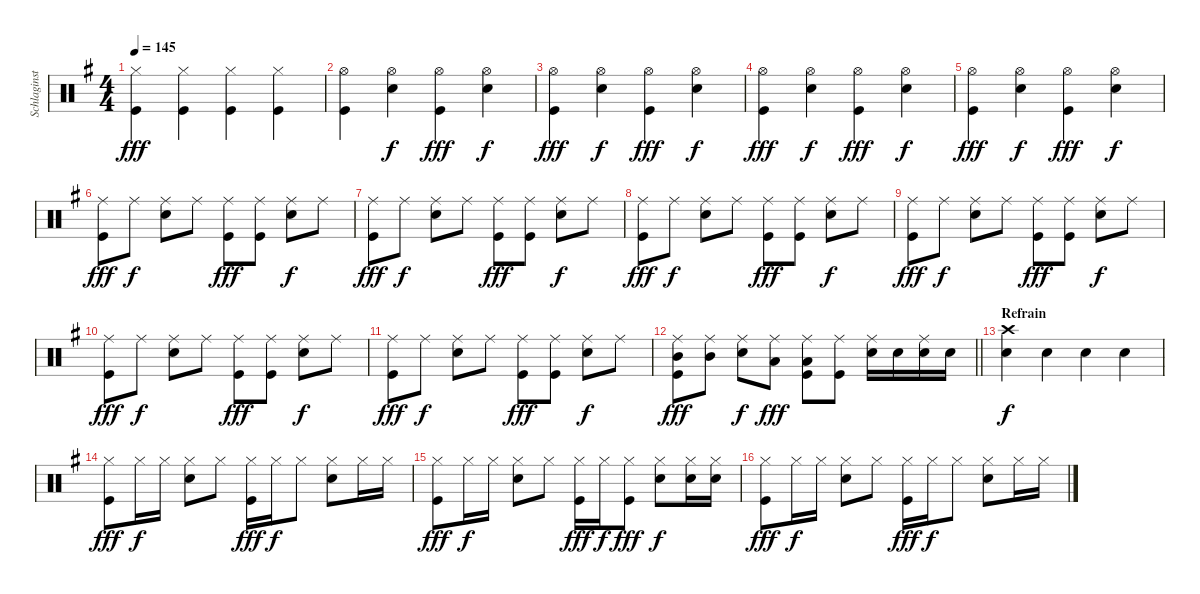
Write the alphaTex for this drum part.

\track ("Schlaginstrumente - Auswahl" "Schlaginst") {instrument percussion}
\staff {score}
\articulation defaults
\ts (4 4)
\tempo 145
\clef neutral
\ks eminor
("Hi-Hat (closed)" "Kick (hit)").4{dy fff} ("Hi-Hat (closed)" "Kick (hit)").4 ("Hi-Hat (closed)" "Kick (hit)").4 ("Hi-Hat (closed)" "Kick (hit)").4 |
("Hi-Hat (open)" "Kick (hit)").4 ("Hi-Hat (open)" "Snare (hit) 2").4{dy f} ("Hi-Hat (open)" "Kick (hit)").4{dy fff} ("Hi-Hat (open)" "Snare (hit) 2").4{dy f} |
("Hi-Hat (open)" "Kick (hit)").4{dy fff} ("Hi-Hat (open)" "Snare (hit) 2").4{dy f} ("Hi-Hat (open)" "Kick (hit)").4{dy fff} ("Hi-Hat (open)" "Snare (hit) 2").4{dy f} |
("Hi-Hat (open)" "Kick (hit)").4{dy fff} ("Hi-Hat (open)" "Snare (hit) 2").4{dy f} ("Hi-Hat (open)" "Kick (hit)").4{dy fff} ("Hi-Hat (open)" "Snare (hit) 2").4{dy f} |
("Hi-Hat (open)" "Kick (hit)").4{dy fff} ("Hi-Hat (open)" "Snare (hit) 2").4{dy f} ("Hi-Hat (open)" "Kick (hit)").4{dy fff} ("Hi-Hat (open)" "Snare (hit) 2").4{dy f} |
("Ride (middle)" "Kick (hit)").8{dy fff} "Ride (middle)".8{dy f} ("Ride (middle)" "Snare (hit) 2").8 "Ride (middle)".8 ("Ride (middle)" "Kick (hit)").8{dy fff} ("Ride (middle)" "Kick (hit)").8 ("Ride (middle)" "Snare (hit) 2").8{dy f} "Ride (middle)".8 |
("Ride (middle)" "Kick (hit)").8{dy fff} "Ride (middle)".8{dy f} ("Ride (middle)" "Snare (hit) 2").8 "Ride (middle)".8 ("Ride (middle)" "Kick (hit)").8{dy fff} ("Ride (middle)" "Kick (hit)").8 ("Ride (middle)" "Snare (hit) 2").8{dy f} "Ride (middle)".8 |
("Ride (middle)" "Kick (hit)").8{dy fff} "Ride (middle)".8{dy f} ("Ride (middle)" "Snare (hit) 2").8 "Ride (middle)".8 ("Ride (middle)" "Kick (hit)").8{dy fff} ("Ride (middle)" "Kick (hit)").8 ("Ride (middle)" "Snare (hit) 2").8{dy f} "Ride (middle)".8 |
("Ride (middle)" "Kick (hit)").8{dy fff} "Ride (middle)".8{dy f} ("Ride (middle)" "Snare (hit) 2").8 "Ride (middle)".8 ("Ride (middle)" "Kick (hit)").8{dy fff} ("Ride (middle)" "Kick (hit)").8 ("Ride (middle)" "Snare (hit) 2").8{dy f} "Ride (middle)".8 |
("Ride (middle)" "Kick (hit)").8{dy fff} "Ride (middle)".8{dy f} ("Ride (middle)" "Snare (hit) 2").8 "Ride (middle)".8 ("Ride (middle)" "Kick (hit)").8{dy fff} ("Ride (middle)" "Kick (hit)").8 ("Ride (middle)" "Snare (hit) 2").8{dy f} "Ride (middle)".8 |
("Ride (middle)" "Kick (hit)").8{dy fff} "Ride (middle)".8{dy f} ("Ride (middle)" "Snare (hit) 2").8 "Ride (middle)".8 ("Ride (middle)" "Kick (hit)").8{dy fff} ("Ride (middle)" "Kick (hit)").8 ("Ride (middle)" "Snare (hit) 2").8{dy f} "Ride (middle)".8 |
\barLineRight lightlight
("Ride (middle)" "Mid Tom (hit)" "Kick (hit)").8{dy fff} ("Ride (middle)" "Mid Tom (hit)").8 ("Ride (middle)" "Snare (hit) 2").8{dy f} ("Ride (middle)" "Low Tom (hit)").8{dy fff} ("Ride (middle)" "Low Tom (hit)" "Kick (hit)").8 ("Ride (middle)" "Kick (hit)").8 ("Ride (middle)" "Snare (hit) 2").16 "Snare (hit) 2".16 ("Ride (middle)" "Snare (hit) 2").16 "Snare (hit) 2".16 |
\section ("" "Refrain")
("Crash high (hit)" "Snare (hit) 2").4{dy f} "Snare (hit) 2".4 "Snare (hit) 2".4 "Snare (hit) 2".4 |
("Hi-Hat (closed)" "Kick (hit)").8{dy fff} "Hi-Hat (closed)".16{dy f} "Hi-Hat (closed)".16 ("Hi-Hat (closed)" "Snare (hit) 2").8 "Hi-Hat (closed)".8 ("Hi-Hat (closed)" "Kick (hit)").16{dy fff} "Hi-Hat (closed)".16{dy f} "Hi-Hat (closed)".8 ("Hi-Hat (closed)" "Snare (hit) 2").8 "Hi-Hat (closed)".16 "Hi-Hat (closed)".16 |
("Hi-Hat (closed)" "Kick (hit)").8{dy fff} "Hi-Hat (closed)".16{dy f} "Hi-Hat (closed)".16 ("Hi-Hat (closed)" "Snare (hit) 2").8 "Hi-Hat (closed)".8 ("Hi-Hat (closed)" "Kick (hit)").16{dy fff} "Hi-Hat (closed)".16{dy f} ("Hi-Hat (closed)" "Kick (hit)").8{dy fff} ("Hi-Hat (closed)" "Snare (hit) 2").8{dy f} ("Hi-Hat (closed)" "Snare (hit) 2").16 ("Hi-Hat (closed)" "Snare (hit) 2").16 |
("Hi-Hat (closed)" "Kick (hit)").8{dy fff} "Hi-Hat (closed)".16{dy f} "Hi-Hat (closed)".16 ("Hi-Hat (closed)" "Snare (hit) 2").8 "Hi-Hat (closed)".8 ("Hi-Hat (closed)" "Kick (hit)").16{dy fff} "Hi-Hat (closed)".16{dy f} "Hi-Hat (closed)".8 ("Hi-Hat (closed)" "Snare (hit) 2").8 "Hi-Hat (closed)".16 "Hi-Hat (closed)".16
